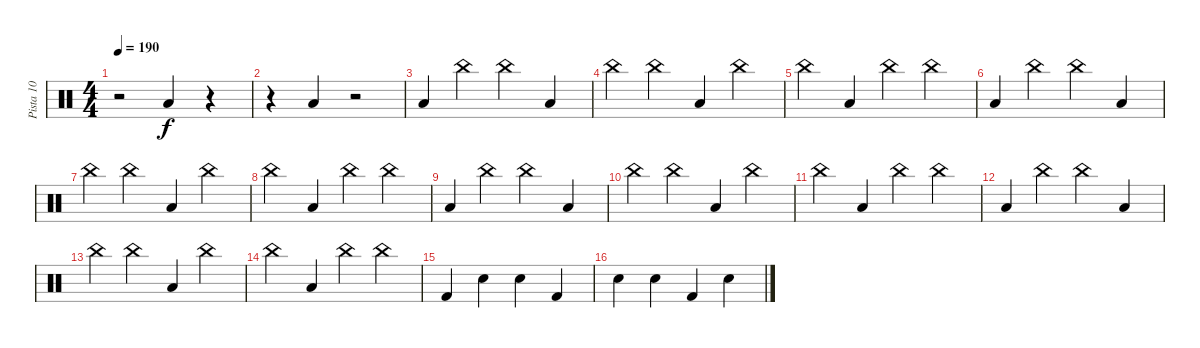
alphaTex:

\track ("Pista 10" "Pista 10") {instrument percussion}
\staff {score}
\articulation defaults
\ts (4 4)
\tempo 190
\clef neutral
\ks c
r.2{dy f} "Low Floor Tom (hit)".4 r.4 |
r.4 "Low Floor Tom (hit)".4{balance 3} r.2 |
"Low Floor Tom (hit)".4{balance 7} "China (hit)".4{balance 8} "China (hit)".4 "Low Floor Tom (hit)".4{balance 8} |
"China (hit)".4 "China (hit)".4{balance 8} "Low Floor Tom (hit)".4 "China (hit)".4 |
"China (hit)".4 "Low Floor Tom (hit)".4 "China (hit)".4 "China (hit)".4 |
"Low Floor Tom (hit)".4 "China (hit)".4 "China (hit)".4 "Low Floor Tom (hit)".4 |
"China (hit)".4 "China (hit)".4 "Low Floor Tom (hit)".4 "China (hit)".4 |
"China (hit)".4 "Low Floor Tom (hit)".4 "China (hit)".4 "China (hit)".4 |
"Low Floor Tom (hit)".4 "China (hit)".4 "China (hit)".4 "Low Floor Tom (hit)".4 |
"China (hit)".4 "China (hit)".4 "Low Floor Tom (hit)".4 "China (hit)".4 |
"China (hit)".4 "Low Floor Tom (hit)".4 "China (hit)".4 "China (hit)".4 |
"Low Floor Tom (hit)".4 "China (hit)".4 "China (hit)".4 "Low Floor Tom (hit)".4 |
"China (hit)".4 "China (hit)".4 "Low Floor Tom (hit)".4 "China (hit)".4 |
"China (hit)".4 "Low Floor Tom (hit)".4 "China (hit)".4 "China (hit)".4 |
"Kick (hit) 2".4 "Snare (hit) 2".4 "Snare (hit) 2".4 "Kick (hit) 2".4 |
"Snare (hit) 2".4 "Snare (hit) 2".4 "Kick (hit) 2".4 "Snare (hit) 2".4
